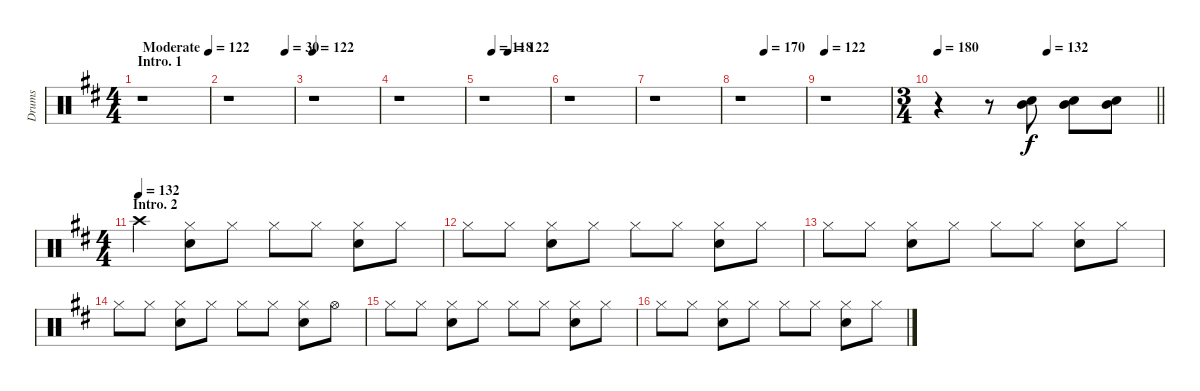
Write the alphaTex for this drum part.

\track ("Drums" "Drums") {instrument percussion}
\staff {score}
\articulation defaults
\ts (4 4)
\section ("" "Intro. 1")
\tempo (122 "Moderate")
\clef neutral
\ks d
r.1{dy f} |
\tempo (30 0.875)
r.1 |
\tempo 122
r.1 |
r.1 |
\tempo (118 0.125)
\tempo (122 0.375)
r.1 |
r.1 |
r.1 |
\tempo (170 0.375)
r.1 |
\tempo 132
\tempo 122
r.1 |
\ts (3 4)
\tempo 180
\tempo (132 0.5)
\barLineRight lightlight
r.4 r.8 ("Mid Tom (hit)" "Snare (hit) 2").8 ("Mid Tom (hit)" "Snare (hit) 2").8 ("Mid Tom (hit)" "Snare (hit) 2").8 |
\ts (4 4)
\section ("" "Intro. 2")
\tempo (132)
"Crash high (hit)".4 ("Hi-Hat (closed)" "Snare (hit) 2").8 "Hi-Hat (closed)".8 "Hi-Hat (closed)".8 "Hi-Hat (closed)".8 ("Hi-Hat (closed)" "Snare (hit) 2").8 "Hi-Hat (closed)".8 |
"Hi-Hat (closed)".8 "Hi-Hat (closed)".8 ("Hi-Hat (closed)" "Snare (hit) 2").8 "Hi-Hat (closed)".8 "Hi-Hat (closed)".8 "Hi-Hat (closed)".8 ("Hi-Hat (closed)" "Snare (hit) 2").8 "Hi-Hat (closed)".8 |
"Hi-Hat (closed)".8 "Hi-Hat (closed)".8 ("Hi-Hat (closed)" "Snare (hit) 2").8 "Hi-Hat (closed)".8 "Hi-Hat (closed)".8 "Hi-Hat (closed)".8 ("Hi-Hat (closed)" "Snare (hit) 2").8 "Hi-Hat (closed)".8 |
"Hi-Hat (closed)".8 "Hi-Hat (closed)".8 ("Hi-Hat (closed)" "Snare (hit) 2").8 "Hi-Hat (closed)".8 "Hi-Hat (closed)".8 "Hi-Hat (closed)".8 ("Hi-Hat (closed)" "Snare (hit) 2").8 "Hi-Hat (open)".8 |
"Hi-Hat (closed)".8 "Hi-Hat (closed)".8 ("Hi-Hat (closed)" "Snare (hit) 2").8 "Hi-Hat (closed)".8 "Hi-Hat (closed)".8 "Hi-Hat (closed)".8 ("Hi-Hat (closed)" "Snare (hit) 2").8 "Hi-Hat (closed)".8 |
"Hi-Hat (closed)".8 "Hi-Hat (closed)".8 ("Hi-Hat (closed)" "Snare (hit) 2").8 "Hi-Hat (closed)".8 "Hi-Hat (closed)".8 "Hi-Hat (closed)".8 ("Hi-Hat (closed)" "Snare (hit) 2").8 "Hi-Hat (closed)".8
